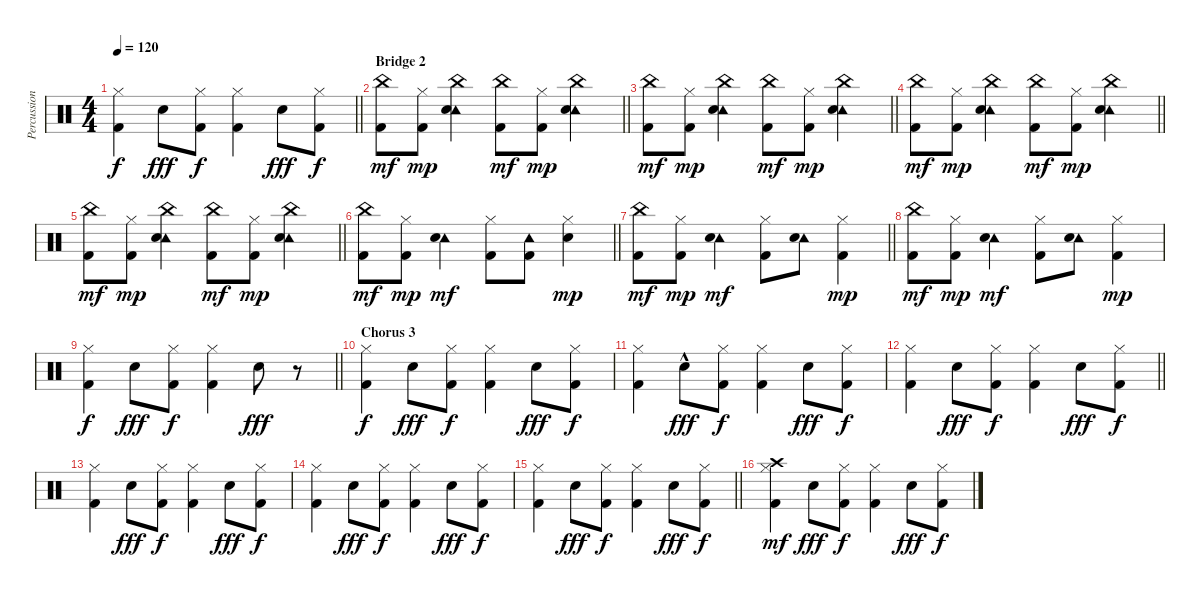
\track ("Percussion" "Percussion") {instrument percussion}
\staff {score}
\articulation defaults
\ts (4 4)
\tempo 120
\clef neutral
\barLineRight lightlight
\ks c
("Kick (hit) 2" "Hi-Hat (closed)").4{dy f} "Snare (hit) 2".8{dy fff} ("Kick (hit) 2" "Hi-Hat (closed)").8{dy f} ("Kick (hit) 2" "Hi-Hat (closed)").4 "Snare (hit) 2".8{dy fff} ("Kick (hit) 2" "Hi-Hat (closed)").8{dy f} |
\section ("" "Bridge 2")
\barLineRight lightlight
("China (hit)" "Kick (hit) 2").8{dy mf} ("Hi-Hat (closed)" "Kick (hit) 2").8{dy mp} ("Tambourine (hit)" "Snare (hit) 2" "China (hit)").4 ("China (hit)" "Kick (hit) 2").8{dy mf} ("Hi-Hat (closed)" "Kick (hit) 2").8{dy mp} ("Tambourine (hit)" "Snare (hit) 2" "China (hit)").4 |
\barLineRight lightlight
("China (hit)" "Kick (hit) 2").8{dy mf} ("Hi-Hat (closed)" "Kick (hit) 2").8{dy mp} ("Tambourine (hit)" "Snare (hit) 2" "China (hit)").4 ("China (hit)" "Kick (hit) 2").8{dy mf} ("Hi-Hat (closed)" "Kick (hit) 2").8{dy mp} ("Tambourine (hit)" "Snare (hit) 2" "China (hit)").4 |
\barLineRight lightlight
("China (hit)" "Kick (hit) 2").8{dy mf} ("Hi-Hat (closed)" "Kick (hit) 2").8{dy mp} ("Tambourine (hit)" "Snare (hit) 2" "China (hit)").4 ("China (hit)" "Kick (hit) 2").8{dy mf} ("Hi-Hat (closed)" "Kick (hit) 2").8{dy mp} ("Tambourine (hit)" "Snare (hit) 2" "China (hit)").4 |
\barLineRight lightlight
("China (hit)" "Kick (hit) 2").8{dy mf} ("Hi-Hat (closed)" "Kick (hit) 2").8{dy mp} ("Tambourine (hit)" "Snare (hit) 2" "China (hit)").4 ("China (hit)" "Kick (hit) 2").8{dy mf} ("Hi-Hat (closed)" "Kick (hit) 2").8{dy mp} ("Tambourine (hit)" "Snare (hit) 2" "China (hit)").4 |
\barLineRight lightlight
("China (hit)" "Kick (hit) 2").8{dy mf} ("Hi-Hat (closed)" "Kick (hit) 2").8{dy mp} ("Tambourine (hit)" "Snare (hit) 2").4{dy mf} ("Hi-Hat (closed)" "Kick (hit) 2").8 ("Tambourine (hit)" "Kick (hit) 2").8 ("Hi-Hat (closed)" "Snare (hit) 2").4{dy mp} |
\barLineRight lightlight
("China (hit)" "Kick (hit) 2").8{dy mf} ("Hi-Hat (closed)" "Kick (hit) 2").8{dy mp} ("Tambourine (hit)" "Snare (hit) 2").4{dy mf} ("Hi-Hat (closed)" "Kick (hit) 2").8 ("Tambourine (hit)" "Snare (hit) 2").8 ("Hi-Hat (closed)" "Kick (hit) 2").4{dy mp} |
("China (hit)" "Kick (hit) 2").8{dy mf} ("Hi-Hat (closed)" "Kick (hit) 2").8{dy mp} ("Tambourine (hit)" "Snare (hit) 2").4{dy mf} ("Hi-Hat (closed)" "Kick (hit) 2").8 ("Tambourine (hit)" "Snare (hit) 2").8 ("Hi-Hat (closed)" "Kick (hit) 2").4{dy mp} |
\barLineRight lightlight
("Kick (hit) 2" "Hi-Hat (closed)").4{dy f} "Snare (hit) 2".8{dy fff} ("Kick (hit) 2" "Hi-Hat (closed)").8{dy f} ("Kick (hit) 2" "Hi-Hat (closed)").4 "Snare (hit) 2".8{dy fff} r.8 |
\section ("" "Chorus 3")
("Kick (hit) 2" "Hi-Hat (closed)").4{dy f} "Snare (hit) 2".8{dy fff} ("Kick (hit) 2" "Hi-Hat (closed)").8{dy f} ("Kick (hit) 2" "Hi-Hat (closed)").4 "Snare (hit) 2".8{dy fff} ("Kick (hit) 2" "Hi-Hat (closed)").8{dy f} |
("Kick (hit) 2" "Hi-Hat (closed)").4 "Snare (hit) 2"{hac}.8{dy fff} ("Kick (hit) 2" "Hi-Hat (closed)").8{dy f} ("Kick (hit) 2" "Hi-Hat (closed)").4 "Snare (hit) 2".8{dy fff} ("Kick (hit) 2" "Hi-Hat (closed)").8{dy f} |
\barLineRight lightlight
("Kick (hit) 2" "Hi-Hat (closed)").4 "Snare (hit) 2".8{dy fff} ("Kick (hit) 2" "Hi-Hat (closed)").8{dy f} ("Kick (hit) 2" "Hi-Hat (closed)").4 "Snare (hit) 2".8{dy fff} ("Kick (hit) 2" "Hi-Hat (closed)").8{dy f} |
("Kick (hit) 2" "Hi-Hat (closed)").4 "Snare (hit) 2".8{dy fff} ("Kick (hit) 2" "Hi-Hat (closed)").8{dy f} ("Kick (hit) 2" "Hi-Hat (closed)").4 "Snare (hit) 2".8{dy fff} ("Kick (hit) 2" "Hi-Hat (closed)").8{dy f} |
("Kick (hit) 2" "Hi-Hat (closed)").4 "Snare (hit) 2".8{dy fff} ("Kick (hit) 2" "Hi-Hat (closed)").8{dy f} ("Kick (hit) 2" "Hi-Hat (closed)").4 "Snare (hit) 2".8{dy fff} ("Kick (hit) 2" "Hi-Hat (closed)").8{dy f} |
\barLineRight lightlight
("Kick (hit) 2" "Hi-Hat (closed)").4 "Snare (hit) 2".8{dy fff} ("Kick (hit) 2" "Hi-Hat (closed)").8{dy f} ("Kick (hit) 2" "Hi-Hat (closed)").4 "Snare (hit) 2".8{dy fff} ("Kick (hit) 2" "Hi-Hat (closed)").8{dy f} |
("Kick (hit) 2" "Hi-Hat (closed)" "Crash high (hit)").4{dy mf} "Snare (hit) 2".8{dy fff} ("Kick (hit) 2" "Hi-Hat (closed)").8{dy f} ("Kick (hit) 2" "Hi-Hat (closed)").4 "Snare (hit) 2".8{dy fff} ("Kick (hit) 2" "Hi-Hat (closed)").8{dy f}
